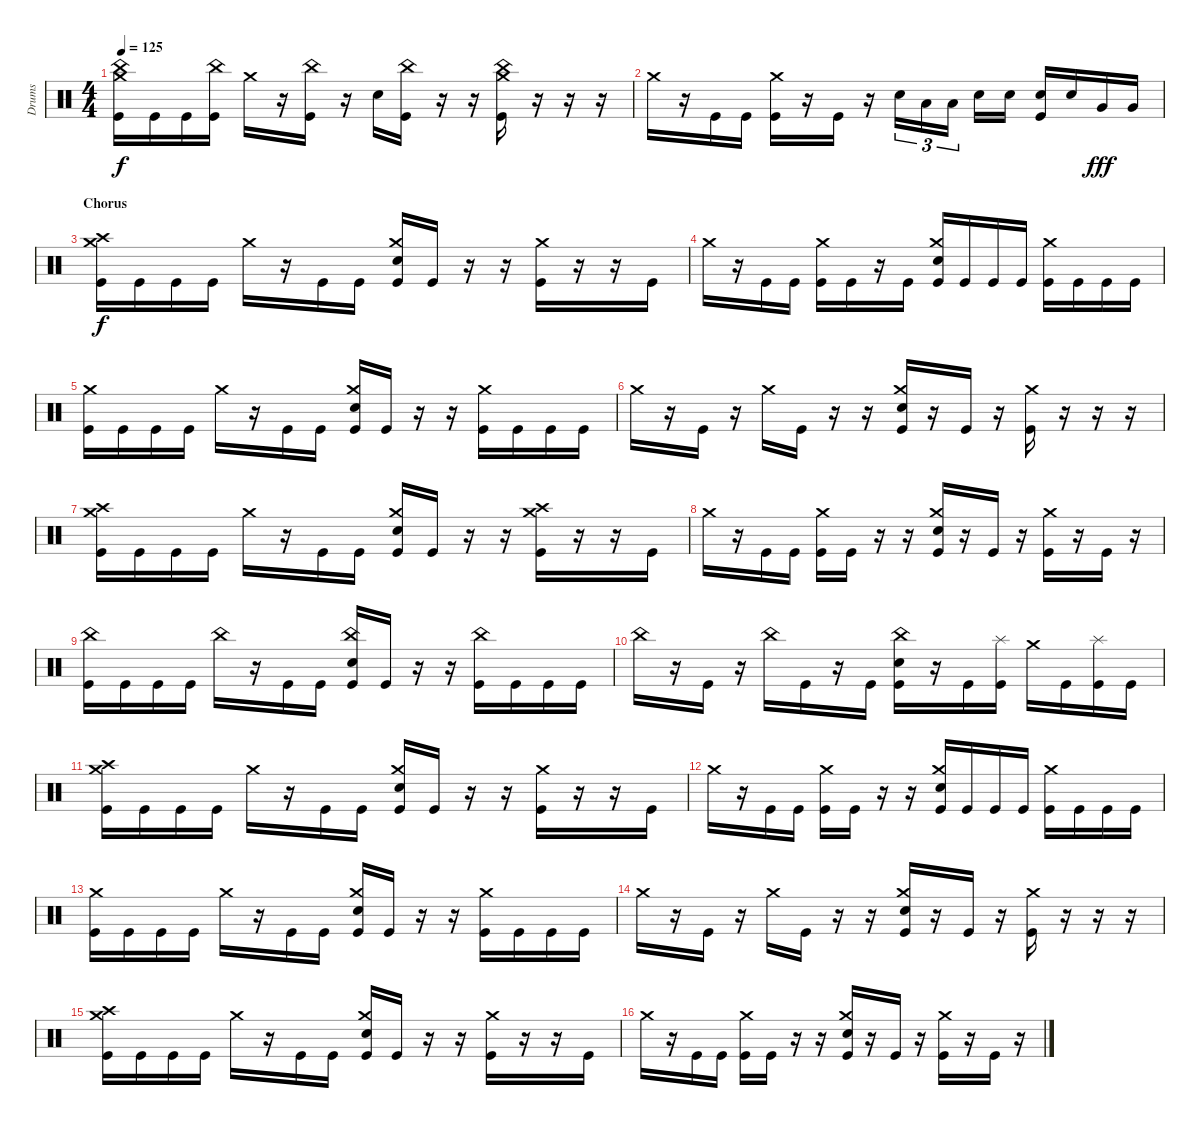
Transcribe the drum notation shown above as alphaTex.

\track ("Drums" "Drums") {instrument percussion}
\staff {score}
\articulation defaults
\ts (4 4)
\tempo 125
\clef neutral
\ks c
("Kick (hit)" "Crash medium (hit)" "China (hit)").16{dy f} "Kick (hit)".16 "Kick (hit)".16 ("Kick (hit)" "China (hit)").16 "Crash medium (hit)".16 r.16 ("Kick (hit)" "China (hit)").16 r.16 "Snare (hit) 2".16 ("Kick (hit)" "China (hit)").16 r.16 r.16 ("Kick (hit)" "Crash medium (hit)" "China (hit)").16 r.16 r.16 r.16 |
"Crash medium (hit)".16 r.16 "Kick (hit)".16 "Kick (hit)".16 ("Crash medium (hit)" "Kick (hit)").16 r.16 "Kick (hit)".16 r.16 "Snare (hit) 2".16{tu (3 2)} "Low Tom (hit)".16{tu (3 2)} "Low Tom (hit)".16{tu (3 2)} "Snare (hit) 2".16 "Snare (hit) 2".16 ("Snare (hit) 2" "Kick (hit)").16 "Snare (hit) 2".16 "Very Low Tom (hit)".16{dy fff} "Very Low Tom (hit)".16 |
\section ("" "Chorus")
("Kick (hit)" "Crash medium (hit)" "Crash high (hit)").16{dy f} "Kick (hit)".16 "Kick (hit)".16 "Kick (hit)".16 "Crash medium (hit)".16 r.16 "Kick (hit)".16 "Kick (hit)".16 ("Kick (hit)" "Crash medium (hit)" "Snare (hit) 2").16 "Kick (hit)".16 r.16 r.16 ("Kick (hit)" "Crash medium (hit)").16 r.16 r.16 "Kick (hit)".16 |
"Crash medium (hit)".16 r.16 "Kick (hit)".16 "Kick (hit)".16 ("Kick (hit)" "Crash medium (hit)").16 "Kick (hit)".16 r.16 "Kick (hit)".16 ("Crash medium (hit)" "Snare (hit) 2" "Kick (hit)").16 "Kick (hit)".16 "Kick (hit)".16 "Kick (hit)".16 ("Crash medium (hit)" "Kick (hit)").16 "Kick (hit)".16 "Kick (hit)".16 "Kick (hit)".16 |
("Kick (hit)" "Crash medium (hit)").16 "Kick (hit)".16 "Kick (hit)".16 "Kick (hit)".16 "Crash medium (hit)".16 r.16 "Kick (hit)".16 "Kick (hit)".16 ("Kick (hit)" "Crash medium (hit)" "Snare (hit) 2").16 "Kick (hit)".16 r.16 r.16 ("Kick (hit)" "Crash medium (hit)").16 "Kick (hit)".16 "Kick (hit)".16 "Kick (hit)".16 |
"Crash medium (hit)".16 r.16 "Kick (hit)".16 r.16 "Crash medium (hit)".16 "Kick (hit)".16 r.16 r.16 ("Crash medium (hit)" "Snare (hit) 2" "Kick (hit)").16 r.16 "Kick (hit)".16 r.16 ("Crash medium (hit)" "Kick (hit)").16 r.16 r.16 r.16 |
("Kick (hit)" "Crash medium (hit)" "Crash high (hit)").16 "Kick (hit)".16 "Kick (hit)".16 "Kick (hit)".16 "Crash medium (hit)".16 r.16 "Kick (hit)".16 "Kick (hit)".16 ("Kick (hit)" "Crash medium (hit)" "Snare (hit) 2").16 "Kick (hit)".16 r.16 r.16 ("Kick (hit)" "Crash medium (hit)" "Crash high (hit)").16 r.16 r.16 "Kick (hit)".16 |
"Crash medium (hit)".16 r.16 "Kick (hit)".16 "Kick (hit)".16 ("Kick (hit)" "Crash medium (hit)").16 "Kick (hit)".16 r.16 r.16 ("Crash medium (hit)" "Snare (hit) 2" "Kick (hit)").16 r.16 "Kick (hit)".16 r.16 ("Crash medium (hit)" "Kick (hit)").16 r.16 "Kick (hit)".16 r.16 |
("Kick (hit)" "China (hit)").16 "Kick (hit)".16 "Kick (hit)".16 "Kick (hit)".16 "China (hit)".16 r.16 "Kick (hit)".16 "Kick (hit)".16 ("Kick (hit)" "Snare (hit) 2" "China (hit)").16 "Kick (hit)".16 r.16 r.16 ("Kick (hit)" "China (hit)").16 "Kick (hit)".16 "Kick (hit)".16 "Kick (hit)".16 |
"China (hit)".16 r.16 "Kick (hit)".16 r.16 "China (hit)".16 "Kick (hit)".16 r.16 "Kick (hit)".16 ("Kick (hit)" "Snare (hit) 2" "China (hit)").16 r.16 "Kick (hit)".16 ("Kick (hit)" "Splash (hit)").16 "Crash medium (hit)".16 "Kick (hit)".16 ("Kick (hit)" "Splash (hit)").16 "Kick (hit)".16 |
("Kick (hit)" "Crash medium (hit)" "Crash high (hit)").16 "Kick (hit)".16 "Kick (hit)".16 "Kick (hit)".16 "Crash medium (hit)".16 r.16 "Kick (hit)".16 "Kick (hit)".16 ("Kick (hit)" "Crash medium (hit)" "Snare (hit) 2").16 "Kick (hit)".16 r.16 r.16 ("Kick (hit)" "Crash medium (hit)").16 r.16 r.16 "Kick (hit)".16 |
"Crash medium (hit)".16 r.16 "Kick (hit)".16 "Kick (hit)".16 ("Kick (hit)" "Crash medium (hit)").16 "Kick (hit)".16 r.16 r.16 ("Crash medium (hit)" "Snare (hit) 2" "Kick (hit)").16 "Kick (hit)".16 "Kick (hit)".16 "Kick (hit)".16 ("Crash medium (hit)" "Kick (hit)").16 "Kick (hit)".16 "Kick (hit)".16 "Kick (hit)".16 |
("Kick (hit)" "Crash medium (hit)").16 "Kick (hit)".16 "Kick (hit)".16 "Kick (hit)".16 "Crash medium (hit)".16 r.16 "Kick (hit)".16 "Kick (hit)".16 ("Kick (hit)" "Crash medium (hit)" "Snare (hit) 2").16 "Kick (hit)".16 r.16 r.16 ("Kick (hit)" "Crash medium (hit)").16 "Kick (hit)".16 "Kick (hit)".16 "Kick (hit)".16 |
"Crash medium (hit)".16 r.16 "Kick (hit)".16 r.16 "Crash medium (hit)".16 "Kick (hit)".16 r.16 r.16 ("Crash medium (hit)" "Snare (hit) 2" "Kick (hit)").16 r.16 "Kick (hit)".16 r.16 ("Crash medium (hit)" "Kick (hit)").16 r.16 r.16 r.16 |
("Kick (hit)" "Crash medium (hit)" "Crash high (hit)").16 "Kick (hit)".16 "Kick (hit)".16 "Kick (hit)".16 "Crash medium (hit)".16 r.16 "Kick (hit)".16 "Kick (hit)".16 ("Kick (hit)" "Crash medium (hit)" "Snare (hit) 2").16 "Kick (hit)".16 r.16 r.16 ("Kick (hit)" "Crash medium (hit)").16 r.16 r.16 "Kick (hit)".16 |
"Crash medium (hit)".16 r.16 "Kick (hit)".16 "Kick (hit)".16 ("Kick (hit)" "Crash medium (hit)").16 "Kick (hit)".16 r.16 r.16 ("Crash medium (hit)" "Snare (hit) 2" "Kick (hit)").16 r.16 "Kick (hit)".16 r.16 ("Crash medium (hit)" "Kick (hit)").16 r.16 "Kick (hit)".16 r.16
